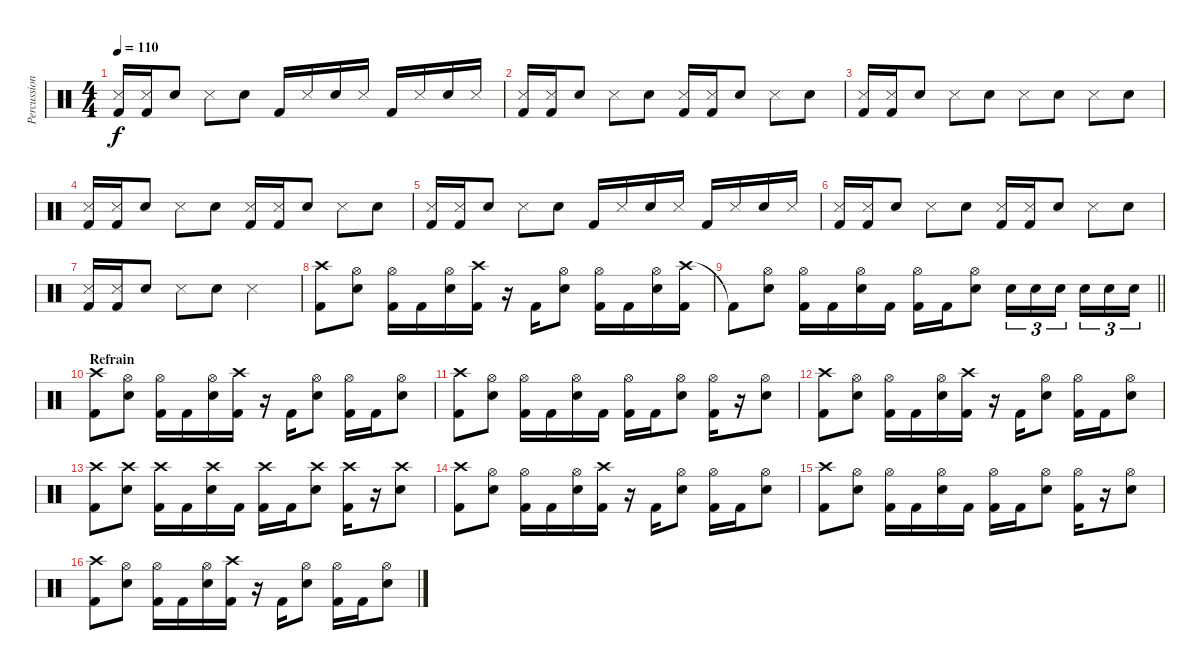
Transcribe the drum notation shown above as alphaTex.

\track ("Percussions" "Percussion") {instrument percussion}
\staff {score}
\articulation defaults
\ts (4 4)
\tempo 110
\clef neutral
\ks c
("Snare (side stick) 3" "Kick (hit) 2").16{dy f} ("Snare (side stick) 3" "Kick (hit) 2").16 "Electric Snare (hit)".8 "Snare (side stick) 3".8 "Electric Snare (hit)".8 "Kick (hit) 2".16 "Snare (side stick) 3".16 "Electric Snare (hit)".16 "Snare (side stick) 3".16 "Kick (hit) 2".16 "Snare (side stick) 3".16 "Electric Snare (hit)".16 "Snare (side stick) 3".16 |
("Snare (side stick) 3" "Kick (hit) 2").16 ("Snare (side stick) 3" "Kick (hit) 2").16 "Electric Snare (hit)".8 "Snare (side stick) 3".8 "Electric Snare (hit)".8 ("Snare (side stick) 3" "Kick (hit) 2").16 ("Snare (side stick) 3" "Kick (hit) 2").16 "Electric Snare (hit)".8 "Snare (side stick) 3".8 "Electric Snare (hit)".8 |
("Snare (side stick) 3" "Kick (hit) 2").16 ("Snare (side stick) 3" "Kick (hit) 2").16 "Electric Snare (hit)".8 "Snare (side stick) 3".8 "Electric Snare (hit)".8 "Snare (side stick) 3".8 "Electric Snare (hit)".8 "Snare (side stick) 3".8 "Electric Snare (hit)".8 |
("Snare (side stick) 3" "Kick (hit) 2").16 ("Snare (side stick) 3" "Kick (hit) 2").16 "Electric Snare (hit)".8 "Snare (side stick) 3".8 "Electric Snare (hit)".8 ("Snare (side stick) 3" "Kick (hit) 2").16 ("Snare (side stick) 3" "Kick (hit) 2").16 "Electric Snare (hit)".8 "Snare (side stick) 3".8 "Electric Snare (hit)".8 |
("Snare (side stick) 3" "Kick (hit) 2").16 ("Snare (side stick) 3" "Kick (hit) 2").16 "Electric Snare (hit)".8 "Snare (side stick) 3".8 "Electric Snare (hit)".8 "Kick (hit) 2".16 "Snare (side stick) 3".16 "Electric Snare (hit)".16 "Snare (side stick) 3".16 "Kick (hit) 2".16 "Snare (side stick) 3".16 "Electric Snare (hit)".16 "Snare (side stick) 3".16 |
("Snare (side stick) 3" "Kick (hit) 2").16 ("Snare (side stick) 3" "Kick (hit) 2").16 "Electric Snare (hit)".8 "Snare (side stick) 3".8 "Electric Snare (hit)".8 ("Snare (side stick) 3" "Kick (hit) 2").16 ("Snare (side stick) 3" "Kick (hit) 2").16 "Electric Snare (hit)".8 "Snare (side stick) 3".8 "Electric Snare (hit)".8 |
("Snare (side stick) 3" "Kick (hit) 2").16 ("Snare (side stick) 3" "Kick (hit) 2").16 "Electric Snare (hit)".8 "Snare (side stick) 3".8 "Electric Snare (hit)".8 "Snare (side stick) 3".2 |
("Crash high (hit)" "Kick (hit) 2").8 ("Hi-Hat (open)" "Electric Snare (hit)").8 ("Hi-Hat (open)" "Kick (hit) 2").16 "Kick (hit) 2".16 ("Hi-Hat (open)" "Electric Snare (hit)").16 ("Crash high (hit)" "Kick (hit) 2").16 r.16 "Kick (hit) 2".16 ("Hi-Hat (open)" "Electric Snare (hit)").8 ("Hi-Hat (open)" "Kick (hit) 2").16 "Kick (hit) 2".16 ("Hi-Hat (open)" "Electric Snare (hit)").16 ("Crash high (hit)" "Kick (hit) 2").16 |
\barLineRight lightlight "Kick (hit) 2"{t}.8
("Hi-Hat (open)" "Electric Snare (hit)").8 ("Hi-Hat (open)" "Kick (hit) 2").16 "Kick (hit) 2".16 ("Hi-Hat (open)" "Electric Snare (hit)").16 "Kick (hit) 2".16 ("Hi-Hat (open)" "Kick (hit) 2").16 "Kick (hit) 2".16 ("Hi-Hat (open)" "Electric Snare (hit)").8 "Electric Snare (hit)".16{tu (3 2)} "Electric Snare (hit)".16{tu (3 2)} "Electric Snare (hit)".16{tu (3 2)} "Electric Snare (hit)".16{tu (3 2)} "Electric Snare (hit)".16{tu (3 2)} "Electric Snare (hit)".16{tu (3 2)} |
\section ("" "Refrain")
("Crash high (hit)" "Kick (hit) 2").8 ("Hi-Hat (open)" "Electric Snare (hit)").8 ("Hi-Hat (open)" "Kick (hit) 2").16 "Kick (hit) 2".16 ("Hi-Hat (open)" "Electric Snare (hit)").16 ("Crash high (hit)" "Kick (hit) 2").16 r.16 "Kick (hit) 2".16 ("Hi-Hat (open)" "Electric Snare (hit)").8 ("Hi-Hat (open)" "Kick (hit) 2").16 "Kick (hit) 2".16 ("Hi-Hat (open)" "Electric Snare (hit)").8 |
("Crash high (hit)" "Kick (hit) 2").8 ("Hi-Hat (open)" "Electric Snare (hit)").8 ("Hi-Hat (open)" "Kick (hit) 2").16 "Kick (hit) 2".16 ("Hi-Hat (open)" "Electric Snare (hit)").16 "Kick (hit) 2".16 ("Hi-Hat (open)" "Kick (hit) 2").16 "Kick (hit) 2".16 ("Hi-Hat (open)" "Electric Snare (hit)").8 ("Hi-Hat (open)" "Kick (hit) 2").16 r.16 ("Hi-Hat (open)" "Electric Snare (hit)").8 |
("Crash high (hit)" "Kick (hit) 2").8 ("Hi-Hat (open)" "Electric Snare (hit)").8 ("Hi-Hat (open)" "Kick (hit) 2").16 "Kick (hit) 2".16 ("Hi-Hat (open)" "Electric Snare (hit)").16 ("Crash high (hit)" "Kick (hit) 2").16 r.16 "Kick (hit) 2".16 ("Hi-Hat (open)" "Electric Snare (hit)").8 ("Hi-Hat (open)" "Kick (hit) 2").16 "Kick (hit) 2".16 ("Hi-Hat (open)" "Electric Snare (hit)").8 |
("Crash high (hit)" "Kick (hit) 2").8 ("Crash high (hit)" "Electric Snare (hit)").8 ("Crash high (hit)" "Kick (hit) 2").16 "Kick (hit) 2".16 ("Crash high (hit)" "Electric Snare (hit)").16 "Kick (hit) 2".16 ("Crash high (hit)" "Kick (hit) 2").16 "Kick (hit) 2".16 ("Crash high (hit)" "Electric Snare (hit)").8 ("Crash high (hit)" "Kick (hit) 2").16 r.16 ("Crash high (hit)" "Electric Snare (hit)").8 |
("Crash high (hit)" "Kick (hit) 2").8 ("Hi-Hat (open)" "Electric Snare (hit)").8 ("Hi-Hat (open)" "Kick (hit) 2").16 "Kick (hit) 2".16 ("Hi-Hat (open)" "Electric Snare (hit)").16 ("Crash high (hit)" "Kick (hit) 2").16 r.16 "Kick (hit) 2".16 ("Hi-Hat (open)" "Electric Snare (hit)").8 ("Hi-Hat (open)" "Kick (hit) 2").16 "Kick (hit) 2".16 ("Hi-Hat (open)" "Electric Snare (hit)").8 |
("Crash high (hit)" "Kick (hit) 2").8 ("Hi-Hat (open)" "Electric Snare (hit)").8 ("Hi-Hat (open)" "Kick (hit) 2").16 "Kick (hit) 2".16 ("Hi-Hat (open)" "Electric Snare (hit)").16 "Kick (hit) 2".16 ("Hi-Hat (open)" "Kick (hit) 2").16 "Kick (hit) 2".16 ("Hi-Hat (open)" "Electric Snare (hit)").8 ("Hi-Hat (open)" "Kick (hit) 2").16 r.16 ("Hi-Hat (open)" "Electric Snare (hit)").8 |
("Crash high (hit)" "Kick (hit) 2").8 ("Hi-Hat (open)" "Electric Snare (hit)").8 ("Hi-Hat (open)" "Kick (hit) 2").16 "Kick (hit) 2".16 ("Hi-Hat (open)" "Electric Snare (hit)").16 ("Crash high (hit)" "Kick (hit) 2").16 r.16 "Kick (hit) 2".16 ("Hi-Hat (open)" "Electric Snare (hit)").8 ("Hi-Hat (open)" "Kick (hit) 2").16 "Kick (hit) 2".16 ("Hi-Hat (open)" "Electric Snare (hit)").8
